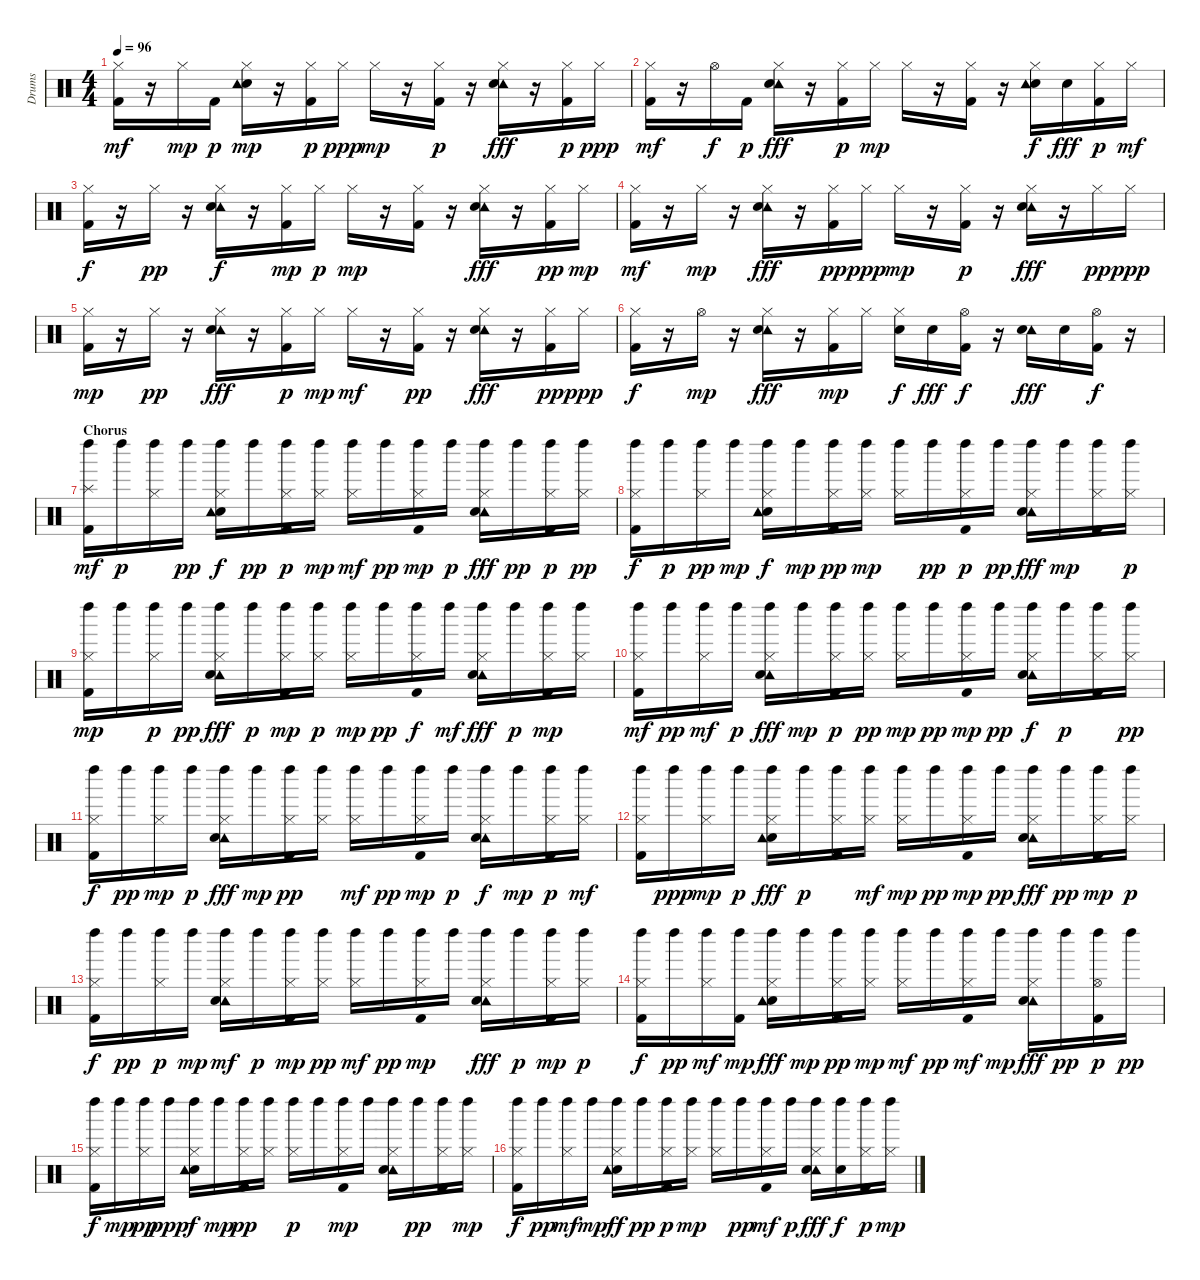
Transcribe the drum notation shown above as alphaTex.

\track ("Drums" "Drums") {instrument percussion}
\staff {score}
\articulation defaults
\ts (4 4)
\tempo 96
\clef neutral
\ks c
("Hi-Hat (closed)" "Kick (hit) 2").16{dy mf} r.16 "Hi-Hat (closed)".16{dy mp} "Kick (hit) 2".16{dy p} ("Hi-Hat (closed)" "Snare (hit) 2" "Tambourine (hit)").16{dy mp} r.16 ("Hi-Hat (closed)" "Kick (hit) 2").16{dy p} "Hi-Hat (closed)".16{dy ppp} "Hi-Hat (closed)".16{dy mp} r.16 ("Kick (hit) 2" "Hi-Hat (closed)").16{dy p} r.16 ("Tambourine (hit)" "Snare (hit) 2" "Hi-Hat (closed)").16{dy fff} r.16 ("Hi-Hat (closed)" "Kick (hit) 2").16{dy p} "Hi-Hat (closed)".16{dy ppp} |
("Kick (hit) 2" "Hi-Hat (closed)").16{dy mf} r.16 "Hi-Hat (open)".16{dy f} "Kick (hit) 2".16{dy p} ("Tambourine (hit)" "Snare (hit) 2" "Hi-Hat (closed)").16{dy fff} r.16 ("Hi-Hat (closed)" "Kick (hit) 2").16{dy p} "Hi-Hat (closed)".16{dy mp} "Hi-Hat (closed)".16 r.16 ("Hi-Hat (closed)" "Kick (hit) 2").16 r.16 ("Snare (hit) 2" "Tambourine (hit)" "Hi-Hat (closed)").16{dy f} "Snare (hit) 2".16{dy fff} ("Kick (hit) 2" "Hi-Hat (closed)").16{dy p} "Hi-Hat (closed)".16{dy mf} |
("Kick (hit) 2" "Hi-Hat (closed)").16{dy f} r.16 "Hi-Hat (closed)".16{dy pp} r.16 ("Hi-Hat (closed)" "Tambourine (hit)" "Snare (hit) 2").16{dy f} r.16 ("Kick (hit) 2" "Hi-Hat (closed)").16{dy mp} "Hi-Hat (closed)".16{dy p} "Hi-Hat (closed)".16{dy mp} r.16 ("Kick (hit) 2" "Hi-Hat (closed)").16 r.16 ("Tambourine (hit)" "Snare (hit) 2" "Hi-Hat (closed)").16{dy fff} r.16 ("Hi-Hat (closed)" "Kick (hit) 2").16{dy pp} "Hi-Hat (closed)".16{dy mp} |
("Hi-Hat (closed)" "Kick (hit) 2").16{dy mf} r.16 "Hi-Hat (closed)".16{dy mp} r.16 ("Tambourine (hit)" "Snare (hit) 2" "Hi-Hat (closed)").16{dy fff} r.16 ("Hi-Hat (closed)" "Kick (hit) 2").16{dy pp} "Hi-Hat (closed)".16{dy ppp} "Hi-Hat (closed)".16{dy mp} r.16 ("Kick (hit) 2" "Hi-Hat (closed)").16{dy p} r.16 ("Tambourine (hit)" "Snare (hit) 2" "Hi-Hat (closed)").16{dy fff} r.16 "Hi-Hat (closed)".16{dy pp} "Hi-Hat (closed)".16{dy ppp} |
("Hi-Hat (closed)" "Kick (hit) 2").16{dy mp} r.16 "Hi-Hat (closed)".16{dy pp} r.16 ("Tambourine (hit)" "Snare (hit) 2" "Hi-Hat (closed)").16{dy fff} r.16 ("Hi-Hat (closed)" "Kick (hit) 2").16{dy p} "Hi-Hat (closed)".16{dy mp} "Hi-Hat (closed)".16{dy mf} r.16 ("Kick (hit) 2" "Hi-Hat (closed)").16{dy pp} r.16 ("Tambourine (hit)" "Snare (hit) 2" "Hi-Hat (closed)").16{dy fff} r.16 ("Hi-Hat (closed)" "Kick (hit) 2").16{dy pp} "Hi-Hat (closed)".16{dy ppp} |
("Kick (hit) 2" "Hi-Hat (closed)").16{dy f} r.16 "Hi-Hat (open)".16{dy mp} r.16 ("Tambourine (hit)" "Snare (hit) 2" "Hi-Hat (closed)").16{dy fff} r.16 ("Hi-Hat (closed)" "Kick (hit) 2").16{dy mp} "Hi-Hat (closed)".16 ("Hi-Hat (closed)" "Snare (hit) 2").16{dy f} "Snare (hit) 2".16{dy fff} ("Hi-Hat (open)" "Kick (hit) 2").16{dy f} r.16 ("Tambourine (hit)" "Snare (hit) 2").16{dy fff} "Snare (hit) 2".16 ("Kick (hit) 2" "Hi-Hat (open)").16{dy f} r.16 |
\section ("" "Chorus")
("Kick (hit) 2" "Splash (hit)" "Left Maraca (hit)").16{dy mf} "Left Maraca (hit)".16{dy p} ("Hi-Hat (closed)" "Left Maraca (hit)").16 "Left Maraca (hit)".16{dy pp} ("Hi-Hat (closed)" "Snare (hit) 2" "Tambourine (hit)" "Left Maraca (hit)").16{dy f} "Left Maraca (hit)".16{dy pp} ("Hi-Hat (closed)" "Kick (hit) 2" "Left Maraca (hit)").16{dy p} ("Hi-Hat (closed)" "Left Maraca (hit)").16{dy mp} ("Hi-Hat (closed)" "Left Maraca (hit)").16{dy mf} "Left Maraca (hit)".16{dy pp} ("Left Maraca (hit)" "Kick (hit) 2" "Hi-Hat (closed)").16{dy mp} "Left Maraca (hit)".16{dy p} ("Tambourine (hit)" "Snare (hit) 2" "Hi-Hat (closed)" "Left Maraca (hit)").16{dy fff} "Left Maraca (hit)".16{dy pp} ("Kick (hit) 2" "Hi-Hat (closed)" "Left Maraca (hit)").16{dy p} ("Hi-Hat (closed)" "Left Maraca (hit)").16{dy pp} |
("Hi-Hat (closed)" "Kick (hit) 2" "Left Maraca (hit)").16{dy f} "Left Maraca (hit)".16{dy p} ("Hi-Hat (closed)" "Left Maraca (hit)").16{dy pp} "Left Maraca (hit)".16{dy mp} ("Hi-Hat (closed)" "Snare (hit) 2" "Tambourine (hit)" "Left Maraca (hit)").16{dy f} "Left Maraca (hit)".16{dy mp} ("Left Maraca (hit)" "Hi-Hat (closed)" "Kick (hit) 2").16{dy pp} ("Left Maraca (hit)" "Hi-Hat (closed)").16{dy mp} ("Left Maraca (hit)" "Hi-Hat (closed)").16 "Left Maraca (hit)".16{dy pp} ("Left Maraca (hit)" "Kick (hit) 2" "Hi-Hat (closed)").16{dy p} "Left Maraca (hit)".16{dy pp} ("Tambourine (hit)" "Snare (hit) 2" "Hi-Hat (closed)" "Left Maraca (hit)").16{dy fff} "Left Maraca (hit)".16{dy mp} ("Left Maraca (hit)" "Kick (hit) 2" "Hi-Hat (closed)").16 ("Hi-Hat (closed)" "Left Maraca (hit)").16{dy p} |
("Left Maraca (hit)" "Kick (hit) 2" "Hi-Hat (closed)").16{dy mp} "Left Maraca (hit)".16 ("Left Maraca (hit)" "Hi-Hat (closed)").16{dy p} "Left Maraca (hit)".16{dy pp} ("Left Maraca (hit)" "Hi-Hat (closed)" "Tambourine (hit)" "Snare (hit) 2").16{dy fff} "Left Maraca (hit)".16{dy p} ("Left Maraca (hit)" "Hi-Hat (closed)" "Kick (hit) 2").16{dy mp} ("Hi-Hat (closed)" "Left Maraca (hit)").16{dy p} ("Hi-Hat (closed)" "Left Maraca (hit)").16{dy mp} "Left Maraca (hit)".16{dy pp} ("Left Maraca (hit)" "Hi-Hat (closed)" "Kick (hit) 2").16{dy f} "Left Maraca (hit)".16{dy mf} ("Tambourine (hit)" "Snare (hit) 2" "Hi-Hat (closed)" "Left Maraca (hit)").16{dy fff} "Left Maraca (hit)".16{dy p} ("Left Maraca (hit)" "Kick (hit) 2" "Hi-Hat (closed)").16{dy mp} ("Hi-Hat (closed)" "Left Maraca (hit)").16 |
("Left Maraca (hit)" "Kick (hit) 2" "Hi-Hat (closed)").16{dy mf} "Left Maraca (hit)".16{dy pp} ("Left Maraca (hit)" "Hi-Hat (closed)").16{dy mf} "Left Maraca (hit)".16{dy p} ("Tambourine (hit)" "Snare (hit) 2" "Hi-Hat (closed)" "Left Maraca (hit)").16{dy fff} "Left Maraca (hit)".16{dy mp} ("Left Maraca (hit)" "Kick (hit) 2" "Hi-Hat (closed)").16{dy p} ("Left Maraca (hit)" "Hi-Hat (closed)").16{dy pp} ("Left Maraca (hit)" "Hi-Hat (closed)").16{dy mp} "Left Maraca (hit)".16{dy pp} ("Left Maraca (hit)" "Kick (hit) 2" "Hi-Hat (closed)").16{dy mp} "Left Maraca (hit)".16{dy pp} ("Left Maraca (hit)" "Tambourine (hit)" "Snare (hit) 2" "Hi-Hat (closed)").16{dy f} "Left Maraca (hit)".16{dy p} ("Left Maraca (hit)" "Kick (hit) 2" "Hi-Hat (closed)").16 ("Hi-Hat (closed)" "Left Maraca (hit)").16{dy pp} |
("Kick (hit) 2" "Hi-Hat (closed)" "Left Maraca (hit)").16{dy f} "Left Maraca (hit)".16{dy pp} ("Left Maraca (hit)" "Hi-Hat (closed)").16{dy mp} "Left Maraca (hit)".16{dy p} ("Tambourine (hit)" "Snare (hit) 2" "Hi-Hat (closed)" "Left Maraca (hit)").16{dy fff} "Left Maraca (hit)".16{dy mp} ("Hi-Hat (closed)" "Kick (hit) 2" "Left Maraca (hit)").16{dy pp} ("Left Maraca (hit)" "Hi-Hat (closed)").16 ("Left Maraca (hit)" "Hi-Hat (closed)").16{dy mf} "Left Maraca (hit)".16{dy pp} ("Left Maraca (hit)" "Kick (hit) 2" "Hi-Hat (closed)").16{dy mp} "Left Maraca (hit)".16{dy p} ("Left Maraca (hit)" "Tambourine (hit)" "Snare (hit) 2" "Hi-Hat (closed)").16{dy f} "Left Maraca (hit)".16{dy mp} ("Left Maraca (hit)" "Hi-Hat (closed)" "Kick (hit) 2").16{dy p} ("Left Maraca (hit)" "Hi-Hat (closed)").16{dy mf} |
("Left Maraca (hit)" "Kick (hit) 2" "Hi-Hat (closed)").16 "Left Maraca (hit)".16{dy ppp} ("Left Maraca (hit)" "Hi-Hat (closed)").16{dy mp} "Left Maraca (hit)".16{dy p} ("Snare (hit) 2" "Tambourine (hit)" "Hi-Hat (closed)" "Left Maraca (hit)").16{dy fff} "Left Maraca (hit)".16{dy p} ("Left Maraca (hit)" "Kick (hit) 2" "Hi-Hat (closed)").16 ("Hi-Hat (closed)" "Left Maraca (hit)").16{dy mf} ("Hi-Hat (closed)" "Left Maraca (hit)").16{dy mp} "Left Maraca (hit)".16{dy pp} ("Kick (hit) 2" "Hi-Hat (closed)" "Left Maraca (hit)").16{dy mp} "Left Maraca (hit)".16{dy pp} ("Tambourine (hit)" "Snare (hit) 2" "Hi-Hat (closed)" "Left Maraca (hit)").16{dy fff} "Left Maraca (hit)".16{dy pp} ("Left Maraca (hit)" "Hi-Hat (closed)" "Kick (hit) 2").16{dy mp} ("Left Maraca (hit)" "Hi-Hat (closed)").16{dy p} |
("Left Maraca (hit)" "Hi-Hat (closed)" "Kick (hit) 2").16{dy f} "Left Maraca (hit)".16{dy pp} ("Left Maraca (hit)" "Hi-Hat (closed)").16{dy p} "Left Maraca (hit)".16{dy mp} ("Left Maraca (hit)" "Tambourine (hit)" "Snare (hit) 2" "Hi-Hat (closed)").16{dy mf} "Left Maraca (hit)".16{dy p} ("Left Maraca (hit)" "Hi-Hat (closed)" "Kick (hit) 2").16{dy mp} ("Left Maraca (hit)" "Hi-Hat (closed)").16{dy pp} ("Left Maraca (hit)" "Hi-Hat (closed)").16{dy mf} "Left Maraca (hit)".16{dy pp} ("Left Maraca (hit)" "Kick (hit) 2" "Hi-Hat (closed)").16{dy mp} "Left Maraca (hit)".16 ("Tambourine (hit)" "Snare (hit) 2" "Hi-Hat (closed)" "Left Maraca (hit)").16{dy fff} "Left Maraca (hit)".16{dy p} ("Hi-Hat (closed)" "Kick (hit) 2" "Left Maraca (hit)").16{dy mp} ("Hi-Hat (closed)" "Left Maraca (hit)").16{dy p} |
("Hi-Hat (closed)" "Kick (hit) 2" "Left Maraca (hit)").16{dy f} "Left Maraca (hit)".16{dy pp} ("Hi-Hat (closed)" "Left Maraca (hit)").16{dy mf} ("Kick (hit) 2" "Left Maraca (hit)").16{dy mp} ("Snare (hit) 2" "Tambourine (hit)" "Hi-Hat (closed)" "Left Maraca (hit)").16{dy fff} "Left Maraca (hit)".16{dy mp} ("Left Maraca (hit)" "Hi-Hat (closed)" "Kick (hit) 2").16{dy pp} ("Hi-Hat (closed)" "Left Maraca (hit)").16{dy mp} ("Hi-Hat (closed)" "Left Maraca (hit)").16{dy mf} "Left Maraca (hit)".16{dy pp} ("Kick (hit) 2" "Hi-Hat (closed)" "Left Maraca (hit)").16{dy mf} "Left Maraca (hit)".16{dy mp} ("Tambourine (hit)" "Snare (hit) 2" "Hi-Hat (closed)" "Left Maraca (hit)").16{dy fff} "Left Maraca (hit)".16{dy pp} ("Left Maraca (hit)" "Hi-Hat (open)" "Kick (hit) 2").16{dy p} "Left Maraca (hit)".16{dy pp} |
("Kick (hit) 2" "Hi-Hat (closed)" "Left Maraca (hit)").16{dy f} "Left Maraca (hit)".16{dy mp} ("Left Maraca (hit)" "Hi-Hat (closed)").16{dy pp} "Left Maraca (hit)".16{dy ppp} ("Hi-Hat (closed)" "Snare (hit) 2" "Tambourine (hit)" "Left Maraca (hit)").16{dy f} "Left Maraca (hit)".16{dy mp} ("Left Maraca (hit)" "Hi-Hat (closed)" "Kick (hit) 2").16{dy pp} ("Left Maraca (hit)" "Hi-Hat (closed)").16 ("Left Maraca (hit)" "Hi-Hat (closed)").16{dy p} "Left Maraca (hit)".16 ("Left Maraca (hit)" "Kick (hit) 2" "Hi-Hat (closed)").16{dy mp} "Left Maraca (hit)".16 ("Left Maraca (hit)" "Tambourine (hit)" "Snare (hit) 2" "Hi-Hat (closed)").16 "Left Maraca (hit)".16{dy pp} ("Kick (hit) 2" "Hi-Hat (closed)" "Left Maraca (hit)").16 ("Hi-Hat (closed)" "Left Maraca (hit)").16{dy mp} |
("Kick (hit) 2" "Hi-Hat (closed)" "Left Maraca (hit)").16{dy f} "Left Maraca (hit)".16{dy pp} ("Hi-Hat (closed)" "Left Maraca (hit)").16{dy mf} "Left Maraca (hit)".16{dy mp} ("Hi-Hat (closed)" "Snare (hit) 2" "Tambourine (hit)" "Left Maraca (hit)").16{dy ff} "Left Maraca (hit)".16{dy pp} ("Hi-Hat (closed)" "Kick (hit) 2" "Left Maraca (hit)").16{dy p} ("Left Maraca (hit)" "Hi-Hat (closed)").16{dy mp} ("Left Maraca (hit)" "Hi-Hat (closed)").16 "Left Maraca (hit)".16{dy pp} ("Left Maraca (hit)" "Kick (hit) 2" "Hi-Hat (closed)").16{dy mf} "Left Maraca (hit)".16{dy p} ("Tambourine (hit)" "Snare (hit) 2" "Hi-Hat (closed)" "Left Maraca (hit)").16{dy fff} ("Snare (hit) 2" "Left Maraca (hit)").16{dy f} ("Hi-Hat (closed)" "Kick (hit) 2" "Left Maraca (hit)").16{dy p} ("Hi-Hat (closed)" "Left Maraca (hit)").16{dy mp}
